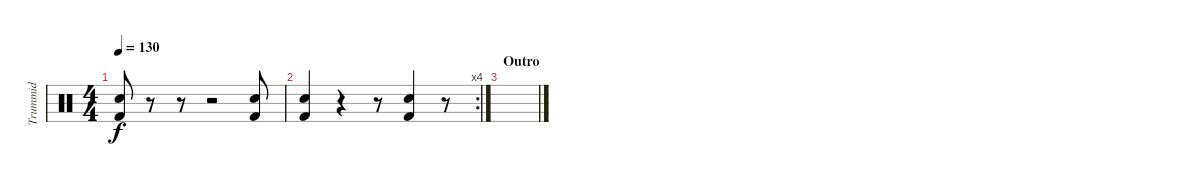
\track ("Trummid" "Trummid") {instrument percussion}
\staff {score}
\articulation defaults
\ts (4 4)
\tempo 130
\clef neutral
\ks c
("Snare (hit) 2" "Kick (hit) 2").8{dy f} r.8 r.8 r.2 ("Snare (hit) 2" "Kick (hit) 2").8 |
\rc 4
("Snare (hit) 2" "Kick (hit) 2").4 r.4 r.8 ("Snare (hit) 2" "Kick (hit) 2").4 r.8 |
\section ("" "Outro")
